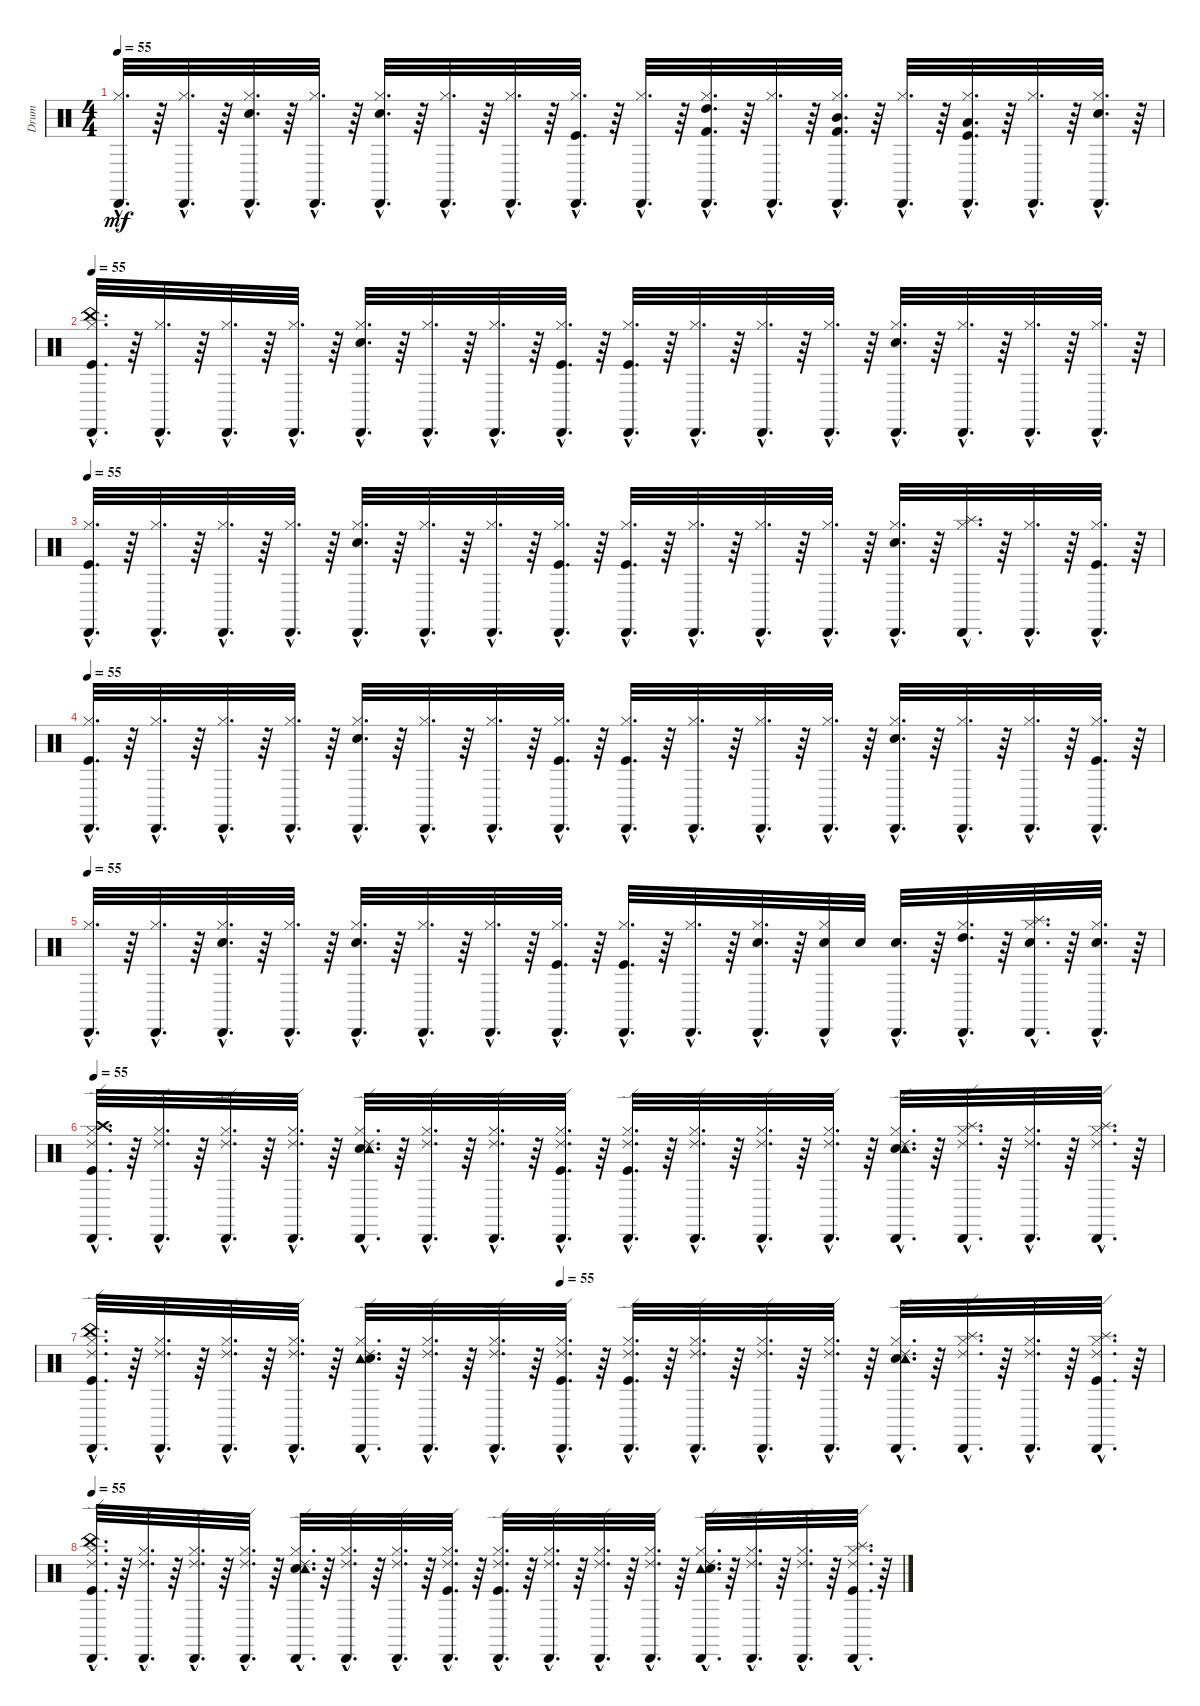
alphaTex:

\track ("Drum" "Drum") {instrument percussion}
\staff {score}
\articulation defaults
\ts (4 4)
\tempo 55
\clef neutral
\ks c
("Cabasa (hit)"{hac} "Hi-Hat (closed)"{hac}).32{d dy mf} r.64 ("Cabasa (hit)"{hac} "Hi-Hat (closed)"{hac}).32{d} r.64 ("Cabasa (hit)"{hac} "Hi-Hat (closed)"{hac} "Snare (hit) 2"{hac}).32{d} r.64 ("Cabasa (hit)"{hac} "Hi-Hat (closed)"{hac}).32{d} r.64 ("Cabasa (hit)"{hac} "Hi-Hat (closed)"{hac} "Snare (hit) 2"{hac}).32{d} r.64 ("Cabasa (hit)"{hac} "Hi-Hat (closed)"{hac}).32{d} r.64 ("Cabasa (hit)"{hac} "Hi-Hat (closed)"{hac}).32{d} r.64 ("Cabasa (hit)"{hac} "Hi-Hat (closed)"{hac} "Kick (hit)"{hac}).32{d} r.64 ("Cabasa (hit)"{hac} "Hi-Hat (closed)"{hac}).32{d} r.64 ("Cabasa (hit)"{hac} "Kick (hit) 2"{hac} "High Tom (hit)"{hac} "Hi-Hat (closed)"{hac}).32{d} r.64 ("Cabasa (hit)"{hac} "Hi-Hat (closed)"{hac}).32{d} r.64 ("Cabasa (hit)"{hac} "Kick (hit) 2"{hac} "Mid Tom (hit)"{hac} "Hi-Hat (closed)"{hac}).32{d} r.64 ("Cabasa (hit)"{hac} "Hi-Hat (closed)"{hac}).32{d} r.64 ("Cabasa (hit)"{hac} "Kick (hit)"{hac} "Low Tom (hit)"{hac} "Hi-Hat (closed)"{hac}).32{d} r.64 ("Cabasa (hit)"{hac} "Hi-Hat (closed)"{hac}).32{d} r.64 ("Cabasa (hit)"{hac} "Snare (hit) 2"{hac} "Hi-Hat (closed)"{hac}).32{d} r.64 |
\tempo 55
("Cabasa (hit)"{hac} "Kick (hit)"{hac} "China (hit)"{hac} "Hi-Hat (closed)"{hac}).32{d} r.64 ("Cabasa (hit)"{hac} "Hi-Hat (closed)"{hac}).32{d} r.64 ("Cabasa (hit)"{hac} "Hi-Hat (closed)"{hac}).32{d} r.64 ("Cabasa (hit)"{hac} "Hi-Hat (closed)"{hac}).32{d} r.64 ("Cabasa (hit)"{hac} "Snare (hit) 2"{hac} "Hi-Hat (closed)"{hac}).32{d} r.64 ("Cabasa (hit)"{hac} "Hi-Hat (closed)"{hac}).32{d} r.64 ("Cabasa (hit)"{hac} "Hi-Hat (closed)"{hac}).32{d} r.64 ("Cabasa (hit)"{hac} "Hi-Hat (closed)"{hac} "Kick (hit)"{hac}).32{d} r.64 ("Cabasa (hit)"{hac} "Kick (hit)"{hac} "Hi-Hat (closed)"{hac}).32{d} r.64 ("Cabasa (hit)"{hac} "Hi-Hat (closed)"{hac}).32{d} r.64 ("Cabasa (hit)"{hac} "Hi-Hat (closed)"{hac}).32{d} r.64 ("Cabasa (hit)"{hac} "Hi-Hat (closed)"{hac}).32{d} r.64 ("Cabasa (hit)"{hac} "Snare (hit) 2"{hac} "Hi-Hat (closed)"{hac}).32{d} r.64 ("Cabasa (hit)"{hac} "Hi-Hat (closed)"{hac}).32{d} r.64 ("Cabasa (hit)"{hac} "Hi-Hat (closed)"{hac}).32{d} r.64 ("Cabasa (hit)"{hac} "Hi-Hat (closed)"{hac}).32{d} r.64 |
\tempo 55
("Cabasa (hit)"{hac} "Hi-Hat (closed)"{hac} "Kick (hit)"{hac}).32{d} r.64 ("Cabasa (hit)"{hac} "Hi-Hat (closed)"{hac}).32{d} r.64 ("Cabasa (hit)"{hac} "Hi-Hat (closed)"{hac}).32{d} r.64 ("Cabasa (hit)"{hac} "Hi-Hat (closed)"{hac}).32{d} r.64 ("Cabasa (hit)"{hac} "Hi-Hat (closed)"{hac} "Snare (hit) 2"{hac}).32{d} r.64 ("Cabasa (hit)"{hac} "Hi-Hat (closed)"{hac}).32{d} r.64 ("Cabasa (hit)"{hac} "Hi-Hat (closed)"{hac}).32{d} r.64 ("Cabasa (hit)"{hac} "Kick (hit)"{hac} "Hi-Hat (closed)"{hac}).32{d} r.64 ("Cabasa (hit)"{hac} "Hi-Hat (closed)"{hac} "Kick (hit)"{hac}).32{d} r.64 ("Cabasa (hit)"{hac} "Hi-Hat (closed)"{hac}).32{d} r.64 ("Cabasa (hit)"{hac} "Hi-Hat (closed)"{hac}).32{d} r.64 ("Cabasa (hit)"{hac} "Hi-Hat (closed)"{hac}).32{d} r.64 ("Cabasa (hit)"{hac} "Hi-Hat (closed)"{hac} "Snare (hit) 2"{hac}).32{d} r.64 ("Cabasa (hit)"{hac} "Hi-Hat (closed)"{hac} "Splash (hit)"{hac}).32{d} r.64 ("Cabasa (hit)"{hac} "Hi-Hat (closed)"{hac}).32{d} r.64 ("Cabasa (hit)"{hac} "Hi-Hat (closed)"{hac} "Kick (hit)"{hac}).32{d} r.64 |
\tempo 55
("Cabasa (hit)"{hac} "Hi-Hat (closed)"{hac} "Kick (hit)"{hac}).32{d} r.64 ("Cabasa (hit)"{hac} "Hi-Hat (closed)"{hac}).32{d} r.64 ("Cabasa (hit)"{hac} "Hi-Hat (closed)"{hac}).32{d} r.64 ("Cabasa (hit)"{hac} "Hi-Hat (closed)"{hac}).32{d} r.64 ("Cabasa (hit)"{hac} "Hi-Hat (closed)"{hac} "Snare (hit) 2"{hac}).32{d} r.64 ("Cabasa (hit)"{hac} "Hi-Hat (closed)"{hac}).32{d} r.64 ("Cabasa (hit)"{hac} "Hi-Hat (closed)"{hac}).32{d} r.64 ("Cabasa (hit)"{hac} "Kick (hit)"{hac} "Hi-Hat (closed)"{hac}).32{d} r.64 ("Cabasa (hit)"{hac} "Hi-Hat (closed)"{hac} "Kick (hit)"{hac}).32{d} r.64 ("Cabasa (hit)"{hac} "Hi-Hat (closed)"{hac}).32{d} r.64 ("Cabasa (hit)"{hac} "Hi-Hat (closed)"{hac}).32{d} r.64 ("Cabasa (hit)"{hac} "Hi-Hat (closed)"{hac}).32{d} r.64 ("Cabasa (hit)"{hac} "Hi-Hat (closed)"{hac} "Snare (hit) 2"{hac}).32{d} r.64 ("Cabasa (hit)"{hac} "Hi-Hat (closed)"{hac}).32{d} r.64 ("Cabasa (hit)"{hac} "Hi-Hat (closed)"{hac}).32{d} r.64 ("Cabasa (hit)"{hac} "Hi-Hat (closed)"{hac} "Kick (hit)"{hac}).32{d} r.64 |
\tempo 55
("Cabasa (hit)"{hac} "Hi-Hat (closed)"{hac}).32{d} r.64 ("Cabasa (hit)"{hac} "Hi-Hat (closed)"{hac}).32{d} r.64 ("Cabasa (hit)"{hac} "Hi-Hat (closed)"{hac} "Snare (hit) 2"{hac}).32{d} r.64 ("Cabasa (hit)"{hac} "Hi-Hat (closed)"{hac}).32{d} r.64 ("Cabasa (hit)"{hac} "Hi-Hat (closed)"{hac} "Snare (hit) 2"{hac}).32{d} r.64 ("Cabasa (hit)"{hac} "Hi-Hat (closed)"{hac}).32{d} r.64 ("Cabasa (hit)"{hac} "Hi-Hat (closed)"{hac}).32{d} r.64 ("Cabasa (hit)"{hac} "Hi-Hat (closed)"{hac} "Kick (hit)"{hac}).32{d} r.64 ("Cabasa (hit)"{hac} "Hi-Hat (closed)"{hac} "Kick (hit)"{hac}).32{d} r.64 ("Cabasa (hit)"{hac} "Hi-Hat (closed)"{hac}).32{d} r.64 ("Cabasa (hit)"{hac} "Snare (hit) 2"{hac} "Hi-Hat (closed)"{hac}).32{d} r.64 ("Cabasa (hit)"{hac} "Snare (hit) 2" "Hi-Hat (closed)").32 "Snare (hit) 2".32 ("Cabasa (hit)"{hac} "Snare (hit) 2"{hac}).32{d} r.64 ("Cabasa (hit)"{hac} "High Tom (hit)"{hac} "Hi-Hat (closed)"{hac}).32{d} r.64 ("Cabasa (hit)"{hac} "Snare (hit) 2"{hac} "Splash (hit)"{hac} "Hi-Hat (closed)"{hac}).32{d} r.64 ("Cabasa (hit)"{hac} "Snare (hit) 2"{hac} "Hi-Hat (closed)"{hac}).32{d} r.64 |
\tempo 55
("Ride (edge) 2"{hac} "Kick (hit)"{hac} "Crash high (hit)"{hac} "Hi-Hat (closed)"{hac} "Cabasa (hit)"{hac}).32{d} r.64 ("Ride (edge) 2"{hac} "Hi-Hat (closed)"{hac} "Cabasa (hit)"{hac}).32{d} r.64 ("Cabasa (hit)"{hac} "Hi-Hat (closed)"{hac} "Ride (edge) 2"{hac}).32{d} r.64 ("Hi-Hat (closed)"{hac} "Cabasa (hit)"{hac} "Ride (edge) 2"{hac}).32{d} r.64 ("Snare (hit) 2"{hac} "Ride (edge) 2"{hac} "Tambourine (hit)"{hac} "Cabasa (hit)"{hac} "Hi-Hat (closed)"{hac}).32{d} r.64 ("Cabasa (hit)"{hac} "Ride (edge) 2"{hac} "Hi-Hat (closed)"{hac}).32{d} r.64 ("Ride (edge) 2"{hac} "Hi-Hat (closed)"{hac} "Cabasa (hit)"{hac}).32{d} r.64 ("Cabasa (hit)"{hac} "Kick (hit)"{hac} "Ride (edge) 2"{hac} "Hi-Hat (closed)"{hac}).32{d} r.64 ("Hi-Hat (closed)"{hac} "Cabasa (hit)"{hac} "Ride (edge) 2"{hac} "Kick (hit)"{hac}).32{d} r.64 ("Cabasa (hit)"{hac} "Ride (edge) 2"{hac} "Hi-Hat (closed)"{hac}).32{d} r.64 ("Hi-Hat (closed)"{hac} "Cabasa (hit)"{hac} "Ride (edge) 2"{hac}).32{d} r.64 ("Hi-Hat (closed)"{hac} "Ride (edge) 2"{hac} "Cabasa (hit)"{hac}).32{d} r.64 ("Snare (hit) 2"{hac} "Tambourine (hit)"{hac} "Ride (edge) 2"{hac} "Hi-Hat (closed)"{hac} "Cabasa (hit)"{hac}).32{d} r.64 ("Hi-Hat (closed)"{hac} "Splash (hit)"{hac} "Ride (edge) 2"{hac} "Cabasa (hit)"{hac}).32{d} r.64 ("Ride (edge) 2"{hac} "Hi-Hat (closed)"{hac} "Cabasa (hit)"{hac}).32{d} r.64 ("Cabasa (hit)"{hac} "Ride (edge) 2"{hac} "Splash (hit)"{hac} "Hi-Hat (closed)"{hac}).32{d} r.64 |
\tempo (55 0.4375)
("Cabasa (hit)"{hac} "China (hit)"{hac} "Ride (edge) 2"{hac} "Kick (hit)"{hac} "Hi-Hat (closed)"{hac}).32{d} r.64 ("Cabasa (hit)"{hac} "Ride (edge) 2"{hac} "Hi-Hat (closed)"{hac}).32{d} r.64 ("Ride (edge) 2"{hac} "Hi-Hat (closed)"{hac} "Cabasa (hit)"{hac}).32{d} r.64 ("Cabasa (hit)"{hac} "Ride (edge) 2"{hac} "Hi-Hat (closed)"{hac}).32{d} r.64 ("Tambourine (hit)"{hac} "Ride (edge) 2"{hac} "Cabasa (hit)"{hac} "Snare (hit) 2"{hac} "Hi-Hat (closed)"{hac}).32{d} r.64 ("Cabasa (hit)"{hac} "Hi-Hat (closed)"{hac} "Ride (edge) 2"{hac}).32{d} r.64 ("Hi-Hat (closed)"{hac} "Ride (edge) 2"{hac} "Cabasa (hit)"{hac}).32{d} r.64 ("Hi-Hat (closed)"{hac} "Cabasa (hit)"{hac} "Kick (hit)"{hac} "Ride (edge) 2"{hac}).32{d} r.64 ("Kick (hit)"{hac} "Hi-Hat (closed)"{hac} "Ride (edge) 2"{hac} "Cabasa (hit)"{hac}).32{d} r.64 ("Ride (edge) 2"{hac} "Hi-Hat (closed)"{hac} "Cabasa (hit)"{hac}).32{d} r.64 ("Ride (edge) 2"{hac} "Cabasa (hit)"{hac} "Hi-Hat (closed)"{hac}).32{d} r.64 ("Hi-Hat (closed)"{hac} "Ride (edge) 2"{hac} "Cabasa (hit)"{hac}).32{d} r.64 ("Hi-Hat (closed)"{hac} "Ride (edge) 2"{hac} "Snare (hit) 2"{hac} "Cabasa (hit)"{hac} "Tambourine (hit)"{hac}).32{d} r.64 ("Splash (hit)"{hac} "Cabasa (hit)"{hac} "Ride (edge) 2"{hac} "Hi-Hat (closed)"{hac}).32{d} r.64 ("Cabasa (hit)"{hac} "Hi-Hat (closed)"{hac} "Ride (edge) 2"{hac}).32{d} r.64 ("Splash (hit)"{hac} "Cabasa (hit)"{hac} "Ride (edge) 2"{hac} "Hi-Hat (closed)"{hac} "Kick (hit)"{hac}).32{d} r.64 |
\tempo 55
("Hi-Hat (closed)"{hac} "Kick (hit)"{hac} "Cabasa (hit)"{hac} "Ride (edge) 2"{hac} "China (hit)"{hac}).32{d} r.64 ("Hi-Hat (closed)"{hac} "Ride (edge) 2"{hac} "Cabasa (hit)"{hac}).32{d} r.64 ("Hi-Hat (closed)"{hac} "Ride (edge) 2"{hac} "Cabasa (hit)"{hac}).32{d} r.64 ("Hi-Hat (closed)"{hac} "Ride (edge) 2"{hac} "Cabasa (hit)"{hac}).32{d} r.64 ("Hi-Hat (closed)"{hac} "Cabasa (hit)"{hac} "Snare (hit) 2"{hac} "Ride (edge) 2"{hac} "Tambourine (hit)"{hac}).32{d} r.64 ("Cabasa (hit)"{hac} "Ride (edge) 2"{hac} "Hi-Hat (closed)"{hac}).32{d} r.64 ("Hi-Hat (closed)"{hac} "Ride (edge) 2"{hac} "Cabasa (hit)"{hac}).32{d} r.64 ("Cabasa (hit)"{hac} "Ride (edge) 2"{hac} "Kick (hit)"{hac} "Hi-Hat (closed)"{hac}).32{d} r.64 ("Hi-Hat (closed)"{hac} "Kick (hit)"{hac} "Ride (edge) 2"{hac} "Cabasa (hit)"{hac}).32{d} r.64 ("Cabasa (hit)"{hac} "Ride (edge) 2"{hac} "Hi-Hat (closed)"{hac}).32{d} r.64 ("Ride (edge) 2"{hac} "Cabasa (hit)"{hac} "Hi-Hat (closed)"{hac}).32{d} r.64 ("Hi-Hat (closed)"{hac} "Ride (edge) 2"{hac} "Cabasa (hit)"{hac}).32{d} r.64 ("Tambourine (hit)"{hac} "Ride (edge) 2"{hac} "Hi-Hat (closed)"{hac} "Snare (hit) 2"{hac} "Cabasa (hit)"{hac}).32{d} r.64 ("Cabasa (hit)"{hac} "Hi-Hat (closed)"{hac} "Ride (edge) 2"{hac}).32{d} r.64 ("Hi-Hat (closed)"{hac} "Ride (edge) 2"{hac} "Cabasa (hit)"{hac}).32{d} r.64 ("Ride (edge) 2"{hac} "Kick (hit)"{hac} "Cabasa (hit)"{hac} "Splash (hit)"{hac} "Hi-Hat (closed)"{hac}).32{d} r.64
